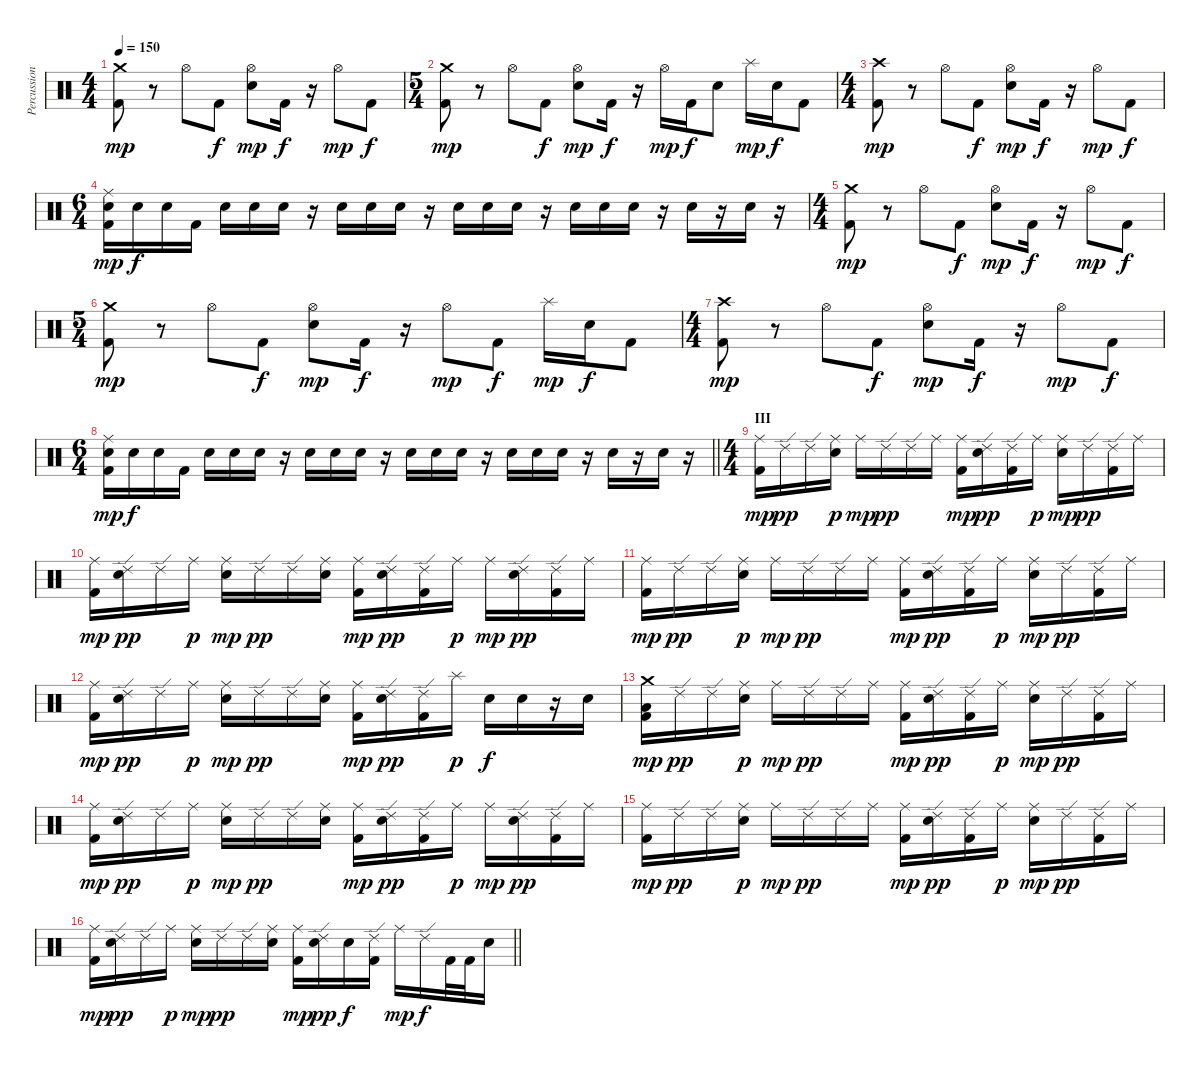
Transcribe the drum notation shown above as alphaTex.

\track ("Percussion" "Percussion") {instrument percussion}
\staff {score}
\articulation defaults
\ts (4 4)
\tempo 150
\clef neutral
\ks c
("Crash medium (hit)" "Kick (hit) 2").8{dy mp} r.8 "Hi-Hat (open)".8 "Kick (hit) 2".8{dy f} ("Hi-Hat (open)" "Electric Snare (hit)").8{dy mp} "Kick (hit) 2".16{dy f} r.16 "Hi-Hat (open)".8{dy mp} "Kick (hit) 2".8{dy f} |
\ts (5 4)
("Crash medium (hit)" "Kick (hit) 2").8{dy mp} r.8 "Hi-Hat (open)".8 "Kick (hit) 2".8{dy f} ("Hi-Hat (open)" "Electric Snare (hit)").8{dy mp} "Kick (hit) 2".16{dy f} r.16 "Hi-Hat (open)".16{dy mp} "Kick (hit) 2".16{dy f} "Electric Snare (hit)".8 "Splash (hit)".16{dy mp} "Electric Snare (hit)".16{dy f} "Kick (hit) 2".8 |
\ts (4 4)
("Crash high (hit)" "Kick (hit) 2").8{dy mp} r.8 "Hi-Hat (open)".8 "Kick (hit) 2".8{dy f} ("Hi-Hat (open)" "Electric Snare (hit)").8{dy mp} "Kick (hit) 2".16{dy f} r.16 "Hi-Hat (open)".8{dy mp} "Kick (hit) 2".8{dy f} |
\ts (6 4)
("Ride (middle)" "Electric Snare (hit)" "Kick (hit) 2").16{dy mp} "Electric Snare (hit)".16{dy f} "Electric Snare (hit)".16 "Kick (hit) 2".16 "Electric Snare (hit)".16 "Electric Snare (hit)".16 "Electric Snare (hit)".16 r.16 "Electric Snare (hit)".16 "Electric Snare (hit)".16 "Electric Snare (hit)".16 r.16 "Electric Snare (hit)".16 "Electric Snare (hit)".16 "Electric Snare (hit)".16 r.16 "Electric Snare (hit)".16 "Electric Snare (hit)".16 "Electric Snare (hit)".16 r.16 "Electric Snare (hit)".16 r.16 "Electric Snare (hit)".16 r.16 |
\ts (4 4)
("Crash medium (hit)" "Kick (hit) 2").8{dy mp} r.8 "Hi-Hat (open)".8 "Kick (hit) 2".8{dy f} ("Hi-Hat (open)" "Electric Snare (hit)").8{dy mp} "Kick (hit) 2".16{dy f} r.16 "Hi-Hat (open)".8{dy mp} "Kick (hit) 2".8{dy f} |
\ts (5 4)
("Crash medium (hit)" "Kick (hit) 2").8{dy mp} r.8 "Hi-Hat (open)".8 "Kick (hit) 2".8{dy f} ("Hi-Hat (open)" "Electric Snare (hit)").8{dy mp} "Kick (hit) 2".16{dy f} r.16 "Hi-Hat (open)".8{dy mp} "Kick (hit) 2".8{dy f} "Splash (hit)".16{dy mp} "Electric Snare (hit)".16{dy f} "Kick (hit) 2".8 |
\ts (4 4)
("Crash high (hit)" "Kick (hit) 2").8{dy mp} r.8 "Hi-Hat (open)".8 "Kick (hit) 2".8{dy f} ("Hi-Hat (open)" "Electric Snare (hit)").8{dy mp} "Kick (hit) 2".16{dy f} r.16 "Hi-Hat (open)".8{dy mp} "Kick (hit) 2".8{dy f} |
\ts (6 4)
\barLineRight lightlight
("Ride (middle)" "Electric Snare (hit)" "Kick (hit) 2").16{dy mp} "Electric Snare (hit)".16{dy f} "Electric Snare (hit)".16 "Kick (hit) 2".16 "Electric Snare (hit)".16 "Electric Snare (hit)".16 "Electric Snare (hit)".16 r.16 "Electric Snare (hit)".16 "Electric Snare (hit)".16 "Electric Snare (hit)".16 r.16 "Electric Snare (hit)".16 "Electric Snare (hit)".16 "Electric Snare (hit)".16 r.16 "Electric Snare (hit)".16 "Electric Snare (hit)".16 "Electric Snare (hit)".16 r.16 "Electric Snare (hit)".16 r.16 "Electric Snare (hit)".16 r.16 |
\ts (4 4)
\section ("" "III")
("Ride (middle)" "Kick (hit) 2").16{dy mp} "Ride (edge) 2".16{dy pp} "Ride (edge) 2".16 ("Ride (middle)" "Electric Snare (hit)").16{dy p} "Ride (middle)".16{dy mp} "Ride (edge) 2".16{dy pp} "Ride (edge) 2".16 "Ride (middle)".16 ("Ride (middle)" "Kick (hit) 2").16{dy mp} ("Ride (edge) 2" "Electric Snare (hit)").16{dy pp} ("Ride (edge) 2" "Kick (hit) 2").16 "Ride (middle)".16{dy p} ("Ride (middle)" "Electric Snare (hit)").16{dy mp} "Ride (edge) 2".16{dy pp} ("Ride (edge) 2" "Kick (hit) 2").16 "Ride (middle)".16 |
("Ride (middle)" "Kick (hit) 2").16{dy mp} ("Ride (edge) 2" "Electric Snare (hit)").16{dy pp} "Ride (edge) 2".16 "Ride (middle)".16{dy p} ("Ride (middle)" "Electric Snare (hit)").16{dy mp} "Ride (edge) 2".16{dy pp} "Ride (edge) 2".16 ("Ride (middle)" "Electric Snare (hit)").16 ("Ride (middle)" "Kick (hit) 2").16{dy mp} ("Ride (edge) 2" "Electric Snare (hit)").16{dy pp} ("Ride (edge) 2" "Kick (hit) 2").16 "Ride (middle)".16{dy p} "Ride (middle)".16{dy mp} ("Ride (edge) 2" "Electric Snare (hit)").16{dy pp} ("Ride (edge) 2" "Kick (hit) 2").16 "Ride (middle)".16 |
("Ride (middle)" "Kick (hit) 2").16{dy mp} "Ride (edge) 2".16{dy pp} "Ride (edge) 2".16 ("Ride (middle)" "Electric Snare (hit)").16{dy p} "Ride (middle)".16{dy mp} "Ride (edge) 2".16{dy pp} "Ride (edge) 2".16 "Ride (middle)".16 ("Ride (middle)" "Kick (hit) 2").16{dy mp} ("Ride (edge) 2" "Electric Snare (hit)").16{dy pp} ("Ride (edge) 2" "Kick (hit) 2").16 "Ride (middle)".16{dy p} ("Ride (middle)" "Electric Snare (hit)").16{dy mp} "Ride (edge) 2".16{dy pp} ("Ride (edge) 2" "Kick (hit) 2").16 "Ride (middle)".16 |
("Ride (middle)" "Kick (hit) 2").16{dy mp} ("Ride (edge) 2" "Electric Snare (hit)").16{dy pp} "Ride (edge) 2".16 "Ride (middle)".16{dy p} ("Ride (middle)" "Electric Snare (hit)").16{dy mp} "Ride (edge) 2".16{dy pp} "Ride (edge) 2".16 ("Ride (middle)" "Electric Snare (hit)").16 ("Ride (middle)" "Kick (hit) 2").16{dy mp} ("Ride (edge) 2" "Electric Snare (hit)").16{dy pp} ("Ride (edge) 2" "Kick (hit) 2").16 "Splash (hit)".16{dy p} "Electric Snare (hit)".16{dy f} "Electric Snare (hit)".16 r.16 "Electric Snare (hit)".16 |
("Crash medium (hit)" "Low Floor Tom (hit)" "Kick (hit) 2").16{dy mp} "Ride (edge) 2".16{dy pp} "Ride (edge) 2".16 ("Ride (middle)" "Electric Snare (hit)").16{dy p} "Ride (middle)".16{dy mp} "Ride (edge) 2".16{dy pp} "Ride (edge) 2".16 "Ride (middle)".16 ("Ride (middle)" "Kick (hit) 2").16{dy mp} ("Ride (edge) 2" "Electric Snare (hit)").16{dy pp} ("Ride (edge) 2" "Kick (hit) 2").16 "Ride (middle)".16{dy p} ("Ride (middle)" "Electric Snare (hit)").16{dy mp} "Ride (edge) 2".16{dy pp} ("Ride (edge) 2" "Kick (hit) 2").16 "Ride (middle)".16 |
("Ride (middle)" "Kick (hit) 2").16{dy mp} ("Ride (edge) 2" "Electric Snare (hit)").16{dy pp} "Ride (edge) 2".16 "Ride (middle)".16{dy p} ("Ride (middle)" "Electric Snare (hit)").16{dy mp} "Ride (edge) 2".16{dy pp} "Ride (edge) 2".16 ("Ride (middle)" "Electric Snare (hit)").16 ("Ride (middle)" "Kick (hit) 2").16{dy mp} ("Ride (edge) 2" "Electric Snare (hit)").16{dy pp} ("Ride (edge) 2" "Kick (hit) 2").16 "Ride (middle)".16{dy p} "Ride (middle)".16{dy mp} ("Ride (edge) 2" "Electric Snare (hit)").16{dy pp} ("Ride (edge) 2" "Kick (hit) 2").16 "Ride (middle)".16 |
("Ride (middle)" "Kick (hit) 2").16{dy mp} "Ride (edge) 2".16{dy pp} "Ride (edge) 2".16 ("Ride (middle)" "Electric Snare (hit)").16{dy p} "Ride (middle)".16{dy mp} "Ride (edge) 2".16{dy pp} "Ride (edge) 2".16 "Ride (middle)".16 ("Ride (middle)" "Kick (hit) 2").16{dy mp} ("Ride (edge) 2" "Electric Snare (hit)").16{dy pp} ("Ride (edge) 2" "Kick (hit) 2").16 "Ride (middle)".16{dy p} ("Ride (middle)" "Electric Snare (hit)").16{dy mp} "Ride (edge) 2".16{dy pp} ("Ride (edge) 2" "Kick (hit) 2").16 "Ride (middle)".16 |
\barLineRight lightlight
("Ride (middle)" "Kick (hit) 2").16{dy mp} ("Ride (edge) 2" "Electric Snare (hit)").16{dy pp} "Ride (edge) 2".16 "Ride (middle)".16{dy p} ("Ride (middle)" "Electric Snare (hit)").16{dy mp} "Ride (edge) 2".16{dy pp} "Ride (edge) 2".16 ("Ride (middle)" "Electric Snare (hit)").16 ("Ride (middle)" "Kick (hit) 2").16{dy mp} ("Ride (edge) 2" "Electric Snare (hit)").16{dy pp} "Electric Snare (hit)".16{dy f} ("Ride (edge) 2" "Kick (hit) 2").16 "Ride (middle)".16{dy mp} "Ride (edge) 2".16{dy f} "Kick (hit) 2".32 "Kick (hit) 2".32 "Electric Snare (hit)".16
